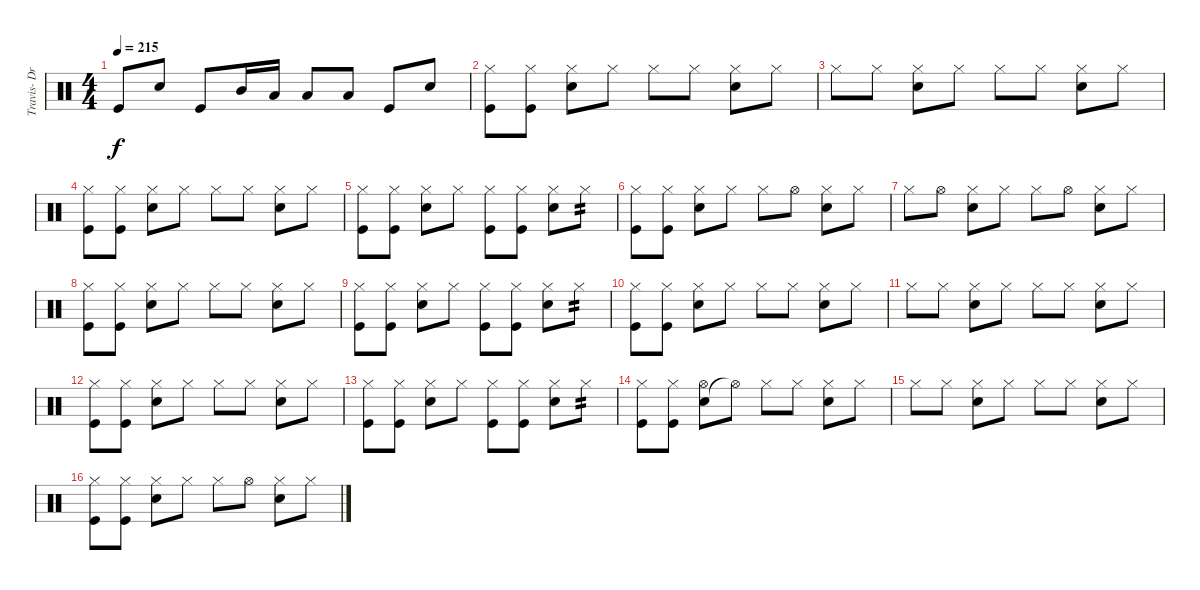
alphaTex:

\track ("Travis- Drums" "Travis- Dr") {instrument percussion}
\staff {score}
\articulation defaults
\ts (4 4)
\tempo 215
\clef neutral
\ks c "Kick (hit)".8{dy f} "Electric Snare (hit)".8 "Kick (hit)".8 "Mid Tom (hit)".16 "Low Tom (hit)".16 "Low Tom (hit)".8 "Low Tom (hit)".8 "Kick (hit)".8 "Electric Snare (hit)".8
|
("Kick (hit)" "Hi-Hat (closed)").8 ("Kick (hit)" "Hi-Hat (closed)").8 ("Electric Snare (hit)" "Hi-Hat (closed)").8 "Hi-Hat (closed)".8 "Hi-Hat (closed)".8 "Hi-Hat (closed)".8 ("Electric Snare (hit)" "Hi-Hat (closed)").8 "Hi-Hat (closed)".8 |
"Hi-Hat (closed)".8 "Hi-Hat (closed)".8 ("Electric Snare (hit)" "Hi-Hat (closed)").8 "Hi-Hat (closed)".8 "Hi-Hat (closed)".8 "Hi-Hat (closed)".8 ("Electric Snare (hit)" "Hi-Hat (closed)").8 "Hi-Hat (closed)".8 |
("Kick (hit)" "Hi-Hat (closed)").8 ("Kick (hit)" "Hi-Hat (closed)").8 ("Electric Snare (hit)" "Hi-Hat (closed)").8 "Hi-Hat (closed)".8 "Hi-Hat (closed)".8 "Hi-Hat (closed)".8 ("Electric Snare (hit)" "Hi-Hat (closed)").8 "Hi-Hat (closed)".8 |
("Kick (hit)" "Hi-Hat (closed)").8 ("Kick (hit)" "Hi-Hat (closed)").8 ("Electric Snare (hit)" "Hi-Hat (closed)").8 "Hi-Hat (closed)".8 ("Kick (hit)" "Hi-Hat (closed)").8 ("Kick (hit)" "Hi-Hat (closed)").8 ("Electric Snare (hit)" "Hi-Hat (closed)").8 "Hi-Hat (closed)".8{tp 2} |
("Kick (hit)" "Hi-Hat (closed)").8 ("Kick (hit)" "Hi-Hat (closed)").8 ("Electric Snare (hit)" "Hi-Hat (closed)").8 "Hi-Hat (closed)".8 "Hi-Hat (closed)".8 "Hi-Hat (open)".8 ("Electric Snare (hit)" "Hi-Hat (closed)").8 "Hi-Hat (closed)".8 |
"Hi-Hat (closed)".8 "Hi-Hat (open)".8 ("Electric Snare (hit)" "Hi-Hat (closed)").8 "Hi-Hat (closed)".8 "Hi-Hat (closed)".8 "Hi-Hat (open)".8 ("Electric Snare (hit)" "Hi-Hat (closed)").8 "Hi-Hat (closed)".8 |
("Kick (hit)" "Hi-Hat (closed)").8 ("Kick (hit)" "Hi-Hat (closed)").8 ("Electric Snare (hit)" "Hi-Hat (closed)").8 "Hi-Hat (closed)".8 "Hi-Hat (closed)".8 "Hi-Hat (closed)".8 ("Electric Snare (hit)" "Hi-Hat (closed)").8 "Hi-Hat (closed)".8 |
("Kick (hit)" "Hi-Hat (closed)").8 ("Kick (hit)" "Hi-Hat (closed)").8 ("Electric Snare (hit)" "Hi-Hat (closed)").8 "Hi-Hat (closed)".8 ("Kick (hit)" "Hi-Hat (closed)").8 ("Kick (hit)" "Hi-Hat (closed)").8 ("Electric Snare (hit)" "Hi-Hat (closed)").8 "Hi-Hat (closed)".8{tp 2} |
("Kick (hit)" "Hi-Hat (closed)").8 ("Kick (hit)" "Hi-Hat (closed)").8 ("Electric Snare (hit)" "Hi-Hat (closed)").8 "Hi-Hat (closed)".8 "Hi-Hat (closed)".8 "Hi-Hat (closed)".8 ("Electric Snare (hit)" "Hi-Hat (closed)").8 "Hi-Hat (closed)".8 |
"Hi-Hat (closed)".8 "Hi-Hat (closed)".8 ("Electric Snare (hit)" "Hi-Hat (closed)").8 "Hi-Hat (closed)".8 "Hi-Hat (closed)".8 "Hi-Hat (closed)".8 ("Electric Snare (hit)" "Hi-Hat (closed)").8 "Hi-Hat (closed)".8 |
("Kick (hit)" "Hi-Hat (closed)").8 ("Kick (hit)" "Hi-Hat (closed)").8 ("Electric Snare (hit)" "Hi-Hat (closed)").8 "Hi-Hat (closed)".8 "Hi-Hat (closed)".8 "Hi-Hat (closed)".8 ("Electric Snare (hit)" "Hi-Hat (closed)").8 "Hi-Hat (closed)".8 |
("Kick (hit)" "Hi-Hat (closed)").8 ("Kick (hit)" "Hi-Hat (closed)").8 ("Electric Snare (hit)" "Hi-Hat (closed)").8 "Hi-Hat (closed)".8 ("Kick (hit)" "Hi-Hat (closed)").8 ("Kick (hit)" "Hi-Hat (closed)").8 ("Electric Snare (hit)" "Hi-Hat (closed)").8 "Hi-Hat (closed)".8{tp 2} |
("Kick (hit)" "Hi-Hat (closed)").8 ("Kick (hit)" "Hi-Hat (closed)").8 ("Electric Snare (hit)" "Hi-Hat (open)").8 "Hi-Hat (open)"{t}.8 "Hi-Hat (closed)".8 "Hi-Hat (closed)".8 ("Electric Snare (hit)" "Hi-Hat (closed)").8 "Hi-Hat (closed)".8 |
"Hi-Hat (closed)".8 "Hi-Hat (closed)".8 ("Electric Snare (hit)" "Hi-Hat (closed)").8 "Hi-Hat (closed)".8 "Hi-Hat (closed)".8 "Hi-Hat (closed)".8 ("Electric Snare (hit)" "Hi-Hat (closed)").8 "Hi-Hat (closed)".8 |
("Kick (hit)" "Hi-Hat (closed)").8 ("Kick (hit)" "Hi-Hat (closed)").8 ("Electric Snare (hit)" "Hi-Hat (closed)").8 "Hi-Hat (closed)".8 "Hi-Hat (closed)".8 "Hi-Hat (open)".8 ("Electric Snare (hit)" "Hi-Hat (closed)").8 "Hi-Hat (closed)".8
